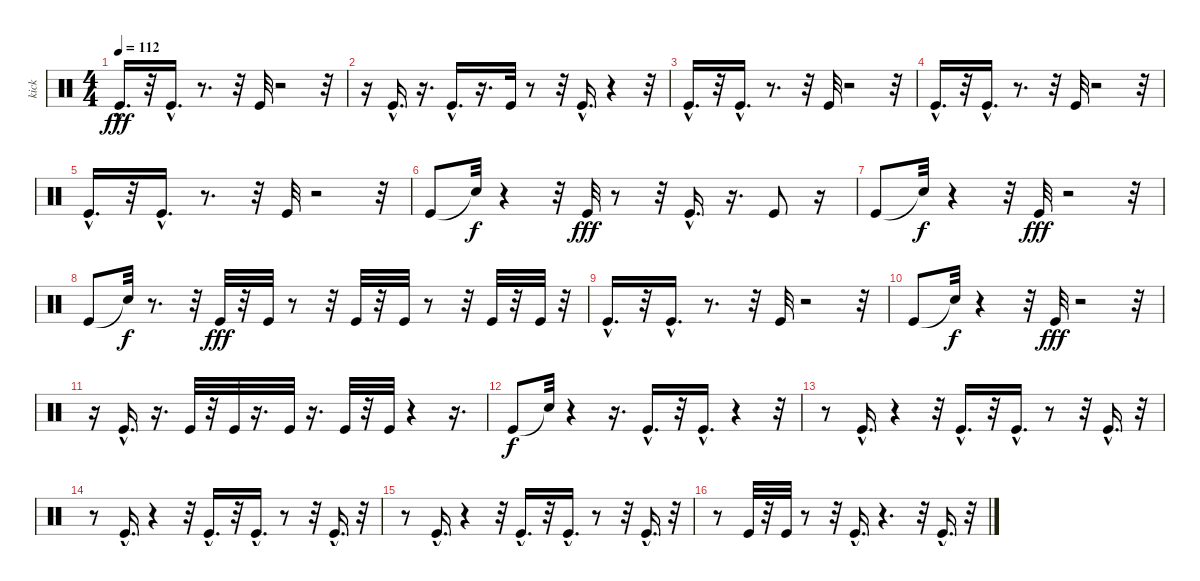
\track ("kick" "kick") {instrument percussion}
\staff {score}
\articulation defaults
\ts (4 4)
\tempo 112
\clef neutral
\ks c "Kick (hit)"{hac}.16{d dy fff}
r.32 "Kick (hit)"{hac}.16{d} r.8{d} r.32 "Kick (hit)".32 r.2 r.32 |
r.16 "Kick (hit)"{hac}.16{d} r.16{d} "Kick (hit)"{hac}.16{d} r.16{d} "Kick (hit)".32 r.8 r.32 "Kick (hit)"{hac}.16{d} r.4 r.32 |
"Kick (hit)"{hac}.16{d} r.32 "Kick (hit)"{hac}.16{d} r.8{d} r.32 "Kick (hit)".32 r.2 r.32 |
"Kick (hit)"{hac}.16{d} r.32 "Kick (hit)"{hac}.16{d} r.8{d} r.32 "Kick (hit)".32 r.2 r.32 |
"Kick (hit)"{hac}.16{d} r.32 "Kick (hit)"{hac}.16{d} r.8{d} r.32 "Kick (hit)".32 r.2 r.32 |
"Kick (hit)".8 "Snare (hit)"{t}.32{dy f} r.4 r.32 "Kick (hit)".32{dy fff} r.8 r.32 "Kick (hit)"{hac}.16{d} r.16{d} "Kick (hit)".8 r.16 |
"Kick (hit)".8 "Snare (hit)"{t}.32{dy f} r.4 r.32 "Kick (hit)".32{dy fff} r.2 r.32 |
"Kick (hit)".8 "Snare (hit)"{t}.32{dy f} r.8{d} r.32 "Kick (hit)".32{dy fff} r.32 "Kick (hit)".32 r.8 r.32 "Kick (hit)".32 r.32 "Kick (hit)".32 r.8 r.32 "Kick (hit)".32 r.32 "Kick (hit)".32 r.32 |
"Kick (hit)"{hac}.16{d} r.32 "Kick (hit)"{hac}.16{d} r.8{d} r.32 "Kick (hit)".32 r.2 r.32 |
"Kick (hit)".8 "Snare (hit)"{t}.32{dy f} r.4 r.32 "Kick (hit)".32{dy fff} r.2 r.32 |
r.16 "Kick (hit)"{hac}.16{d} r.16{d} "Kick (hit)".32 r.32 "Kick (hit)".32 r.16{d} "Kick (hit)".32 r.16{d} "Kick (hit)".32 r.32 "Kick (hit)".32 r.4 r.16{d} |
"Kick (hit)".8{dy f} "Snare (hit)"{t}.32 r.4 r.16{d} "Kick (hit)"{hac}.16{d} r.32 "Kick (hit)"{hac}.16{d} r.4 r.32 |
r.8 "Kick (hit)"{hac}.16{d} r.4 r.32 "Kick (hit)"{hac}.16{d} r.32 "Kick (hit)"{hac}.16{d} r.8 r.32 "Kick (hit)"{hac}.16{d} r.32 |
r.8 "Kick (hit)"{hac}.16{d} r.4 r.32 "Kick (hit)"{hac}.16{d} r.32 "Kick (hit)"{hac}.16{d} r.8 r.32 "Kick (hit)"{hac}.16{d} r.32 |
r.8 "Kick (hit)"{hac}.16{d} r.4 r.32 "Kick (hit)"{hac}.16{d} r.32 "Kick (hit)"{hac}.16{d} r.8 r.32 "Kick (hit)"{hac}.16{d} r.32 |
r.8 "Kick (hit)".32 r.32 "Kick (hit)".32 r.8 r.32 "Kick (hit)"{hac}.16{d} r.4{d} r.32 "Kick (hit)"{hac}.16{d} r.32
